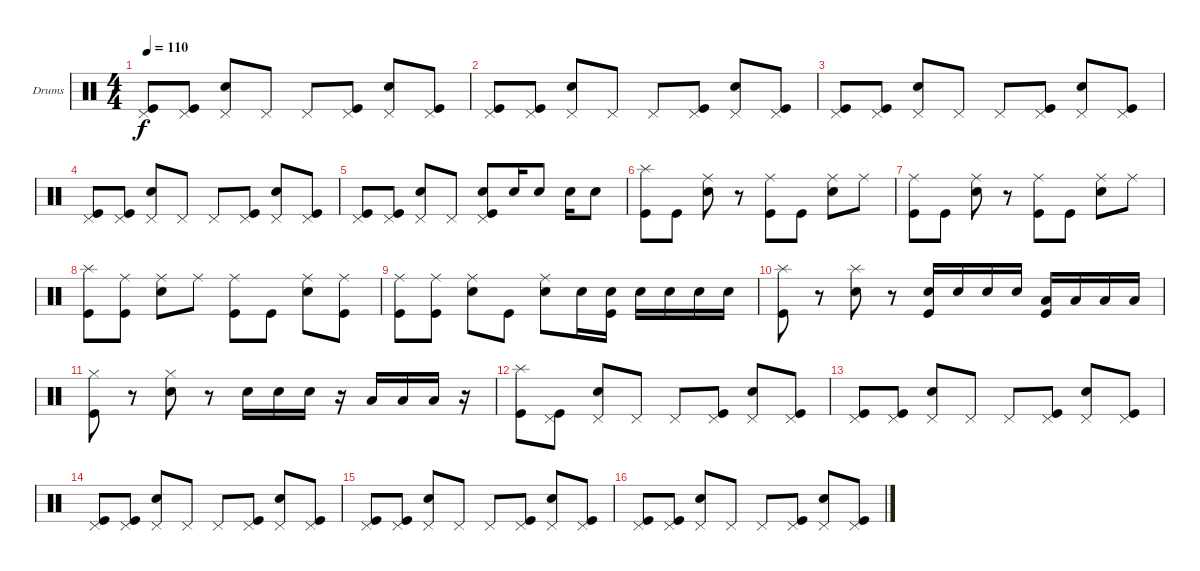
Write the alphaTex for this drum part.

\defaultSystemsLayout 4
\bracketExtendMode groupsimilarinstruments
\firstSystemTrackNameOrientation horizontal
\otherSystemsTrackNameOrientation horizontal
\track ("Drumkit" "Drums") {instrument percussion}
\staff {score}
\articulation defaults
\ts (4 4)
\tempo 110
\clef neutral
\ks c
("Pedal Hi-Hat (hit)" "Kick (hit)").8{dy f} ("Pedal Hi-Hat (hit)" "Kick (hit)").8 ("Pedal Hi-Hat (hit)" "Snare (hit) 2").8 "Pedal Hi-Hat (hit)".8 "Pedal Hi-Hat (hit)".8 ("Pedal Hi-Hat (hit)" "Kick (hit)").8 ("Pedal Hi-Hat (hit)" "Snare (hit) 2").8 ("Pedal Hi-Hat (hit)" "Kick (hit)").8 |
("Pedal Hi-Hat (hit)" "Kick (hit)").8 ("Pedal Hi-Hat (hit)" "Kick (hit)").8 ("Pedal Hi-Hat (hit)" "Snare (hit) 2").8 "Pedal Hi-Hat (hit)".8 "Pedal Hi-Hat (hit)".8 ("Pedal Hi-Hat (hit)" "Kick (hit)").8 ("Pedal Hi-Hat (hit)" "Snare (hit) 2").8 ("Pedal Hi-Hat (hit)" "Kick (hit)").8 |
("Pedal Hi-Hat (hit)" "Kick (hit)").8 ("Pedal Hi-Hat (hit)" "Kick (hit)").8 ("Pedal Hi-Hat (hit)" "Snare (hit) 2").8 "Pedal Hi-Hat (hit)".8 "Pedal Hi-Hat (hit)".8 ("Pedal Hi-Hat (hit)" "Kick (hit)").8 ("Pedal Hi-Hat (hit)" "Snare (hit) 2").8 ("Pedal Hi-Hat (hit)" "Kick (hit)").8 |
("Pedal Hi-Hat (hit)" "Kick (hit)").8 ("Pedal Hi-Hat (hit)" "Kick (hit)").8 ("Pedal Hi-Hat (hit)" "Snare (hit) 2").8 "Pedal Hi-Hat (hit)".8 "Pedal Hi-Hat (hit)".8 ("Pedal Hi-Hat (hit)" "Kick (hit)").8 ("Pedal Hi-Hat (hit)" "Snare (hit) 2").8 ("Pedal Hi-Hat (hit)" "Kick (hit)").8 |
("Pedal Hi-Hat (hit)" "Kick (hit)").8 ("Pedal Hi-Hat (hit)" "Kick (hit)").8 ("Pedal Hi-Hat (hit)" "Snare (hit) 2").8 "Pedal Hi-Hat (hit)".8 ("Pedal Hi-Hat (hit)" "Kick (hit)" "Snare (hit) 2").8 "Snare (hit) 2".16 "Snare (hit) 2".8 "Snare (hit) 2".16 "Snare (hit) 2".8 |
("Splash (hit)" "Kick (hit)").8 "Kick (hit)".8 ("Snare (hit) 2" "Ride (middle)").8 r.8 ("Ride (middle)" "Kick (hit)").8 "Kick (hit)".8 ("Snare (hit) 2" "Ride (middle)").8 "Ride (middle)".8 |
("Kick (hit)" "Ride (middle)").8 "Kick (hit)".8 ("Snare (hit) 2" "Ride (middle)").8 r.8 ("Ride (middle)" "Kick (hit)").8 "Kick (hit)".8 ("Snare (hit) 2" "Ride (middle)").8 "Ride (middle)".8 |
("Splash (hit)" "Kick (hit)").8 ("Kick (hit)" "Ride (middle)").8 ("Snare (hit) 2" "Ride (middle)").8 "Ride (middle)".8 ("Ride (middle)" "Kick (hit)").8 "Kick (hit)".8 ("Snare (hit) 2" "Ride (middle)").8 ("Ride (middle)" "Kick (hit)").8 |
("Ride (middle)" "Kick (hit)").8 ("Ride (middle)" "Kick (hit)").8 ("Ride (middle)" "Snare (hit) 2").8 "Kick (hit)".8 ("Ride (middle)" "Snare (hit) 2").8 "Snare (hit) 2".16 ("Snare (hit) 2" "Kick (hit)").16 "Snare (hit) 2".16 "Snare (hit) 2".16 "Snare (hit) 2".16 "Snare (hit) 2".16 |
("Splash (hit)" "Kick (hit)").8 r.8 ("Splash (hit)" "Snare (hit) 2").8 r.8 ("Kick (hit)" "Snare (hit) 2").16 "Snare (hit) 2".16 "Snare (hit) 2".16 "Snare (hit) 2".16 ("Kick (hit)" "Low Tom (hit)").16 "Low Tom (hit)".16 "Low Tom (hit)".16 "Low Tom (hit)".16 |
("Hi-Hat (closed)" "Kick (hit)").8 r.8 ("Hi-Hat (closed)" "Snare (hit) 2").8 r.8 "Snare (hit) 2".16 "Snare (hit) 2".16 "Snare (hit) 2".16 r.16 "Low Tom (hit)".16 "Low Tom (hit)".16 "Low Tom (hit)".16 r.16 |
("Kick (hit)" "Splash (hit)").8 ("Pedal Hi-Hat (hit)" "Kick (hit)").8 ("Pedal Hi-Hat (hit)" "Snare (hit) 2").8 "Pedal Hi-Hat (hit)".8 "Pedal Hi-Hat (hit)".8 ("Pedal Hi-Hat (hit)" "Kick (hit)").8 ("Pedal Hi-Hat (hit)" "Snare (hit) 2").8 ("Pedal Hi-Hat (hit)" "Kick (hit)").8 |
("Pedal Hi-Hat (hit)" "Kick (hit)").8 ("Pedal Hi-Hat (hit)" "Kick (hit)").8 ("Pedal Hi-Hat (hit)" "Snare (hit) 2").8 "Pedal Hi-Hat (hit)".8 "Pedal Hi-Hat (hit)".8 ("Pedal Hi-Hat (hit)" "Kick (hit)").8 ("Pedal Hi-Hat (hit)" "Snare (hit) 2").8 ("Pedal Hi-Hat (hit)" "Kick (hit)").8 |
("Pedal Hi-Hat (hit)" "Kick (hit)").8 ("Pedal Hi-Hat (hit)" "Kick (hit)").8 ("Pedal Hi-Hat (hit)" "Snare (hit) 2").8 "Pedal Hi-Hat (hit)".8 "Pedal Hi-Hat (hit)".8 ("Pedal Hi-Hat (hit)" "Kick (hit)").8 ("Pedal Hi-Hat (hit)" "Snare (hit) 2").8 ("Pedal Hi-Hat (hit)" "Kick (hit)").8 |
("Pedal Hi-Hat (hit)" "Kick (hit)").8 ("Pedal Hi-Hat (hit)" "Kick (hit)").8 ("Pedal Hi-Hat (hit)" "Snare (hit) 2").8 "Pedal Hi-Hat (hit)".8 "Pedal Hi-Hat (hit)".8 ("Pedal Hi-Hat (hit)" "Kick (hit)").8 ("Pedal Hi-Hat (hit)" "Snare (hit) 2").8 ("Pedal Hi-Hat (hit)" "Kick (hit)").8 |
("Pedal Hi-Hat (hit)" "Kick (hit)").8 ("Pedal Hi-Hat (hit)" "Kick (hit)").8 ("Pedal Hi-Hat (hit)" "Snare (hit) 2").8 "Pedal Hi-Hat (hit)".8 "Pedal Hi-Hat (hit)".8 ("Pedal Hi-Hat (hit)" "Kick (hit)").8 ("Pedal Hi-Hat (hit)" "Snare (hit) 2").8 ("Pedal Hi-Hat (hit)" "Kick (hit)").8
